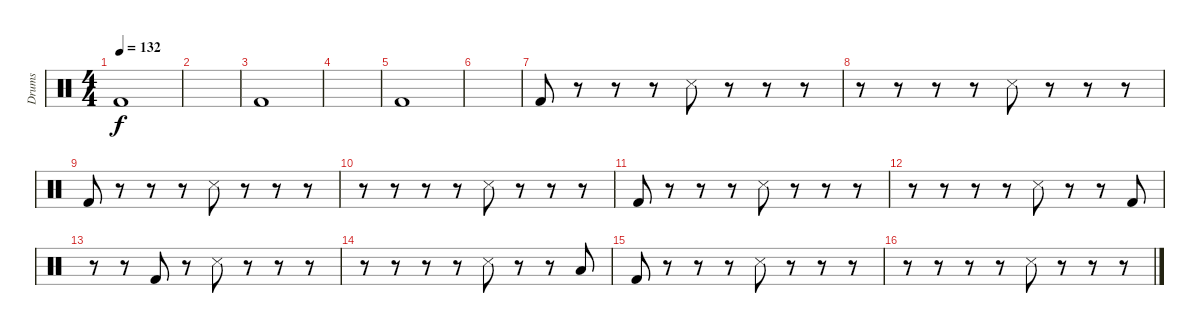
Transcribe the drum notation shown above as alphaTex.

\track ("Drums" "Drums") {instrument percussion}
\staff {score}
\articulation defaults
\ts (4 4)
\tempo 132
\clef neutral
\ks c "Kick (hit) 2".1{dy f}
|
|
"Kick (hit) 2".1 |
|
"Kick (hit) 2".1 |
|
"Kick (hit) 2".8 r.8 r.8 r.8 "Snare (side stick) 3".8 r.8 r.8 r.8 |
r.8 r.8 r.8 r.8 "Snare (side stick) 3".8 r.8 r.8 r.8 |
"Kick (hit) 2".8 r.8 r.8 r.8 "Snare (side stick) 3".8 r.8 r.8 r.8 |
r.8 r.8 r.8 r.8 "Snare (side stick) 3".8 r.8 r.8 r.8 |
"Kick (hit) 2".8 r.8 r.8 r.8 "Snare (side stick) 3".8 r.8 r.8 r.8 |
r.8 r.8 r.8 r.8 "Snare (side stick) 3".8 r.8 r.8 "Kick (hit) 2".8 |
r.8 r.8 "Kick (hit) 2".8 r.8 "Snare (side stick) 3".8 r.8 r.8 r.8 |
r.8 r.8 r.8 r.8 "Snare (side stick) 3".8 r.8 r.8 "Low Tom (hit)".8 |
"Kick (hit) 2".8 r.8 r.8 r.8 "Snare (side stick) 3".8 r.8 r.8 r.8 |
r.8 r.8 r.8 r.8 "Snare (side stick) 3".8 r.8 r.8 r.8
